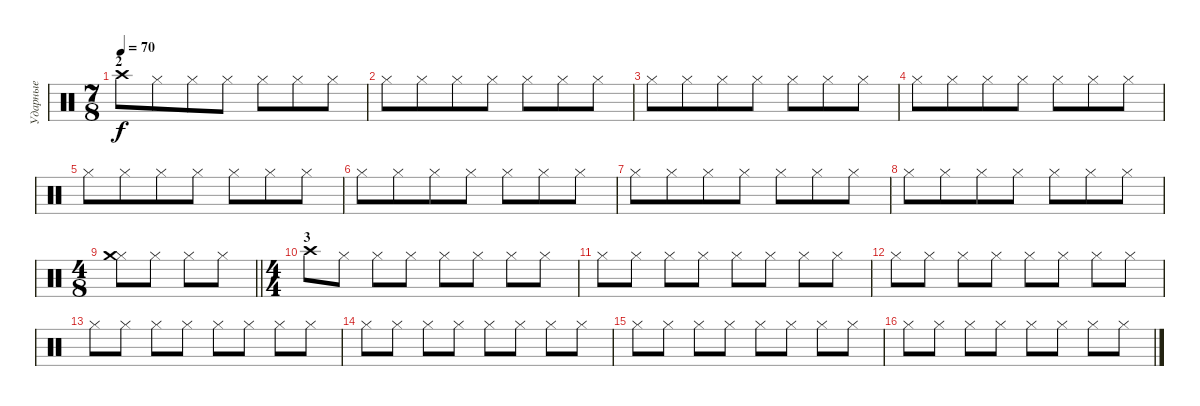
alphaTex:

\track ("Ударные" "Ударные") {instrument percussion}
\staff {score}
\articulation defaults
\ts (7 8)
\section ("" "2")
\tempo 70
\clef neutral
\ks c "Crash high (hit)".8{dy f} "Hi-Hat (closed)".8 "Hi-Hat (closed)".8 "Hi-Hat (closed)".8 "Hi-Hat (closed)".8 "Hi-Hat (closed)".8 "Hi-Hat (closed)".8
|
"Hi-Hat (closed)".8 "Hi-Hat (closed)".8 "Hi-Hat (closed)".8 "Hi-Hat (closed)".8 "Hi-Hat (closed)".8 "Hi-Hat (closed)".8 "Hi-Hat (closed)".8 |
"Hi-Hat (closed)".8 "Hi-Hat (closed)".8 "Hi-Hat (closed)".8 "Hi-Hat (closed)".8 "Hi-Hat (closed)".8 "Hi-Hat (closed)".8 "Hi-Hat (closed)".8 |
"Hi-Hat (closed)".8 "Hi-Hat (closed)".8 "Hi-Hat (closed)".8 "Hi-Hat (closed)".8 "Hi-Hat (closed)".8 "Hi-Hat (closed)".8 "Hi-Hat (closed)".8 |
"Hi-Hat (closed)".8 "Hi-Hat (closed)".8 "Hi-Hat (closed)".8 "Hi-Hat (closed)".8 "Hi-Hat (closed)".8 "Hi-Hat (closed)".8 "Hi-Hat (closed)".8 |
"Hi-Hat (closed)".8 "Hi-Hat (closed)".8 "Hi-Hat (closed)".8 "Hi-Hat (closed)".8 "Hi-Hat (closed)".8 "Hi-Hat (closed)".8 "Hi-Hat (closed)".8 |
"Hi-Hat (closed)".8 "Hi-Hat (closed)".8 "Hi-Hat (closed)".8 "Hi-Hat (closed)".8 "Hi-Hat (closed)".8 "Hi-Hat (closed)".8 "Hi-Hat (closed)".8 |
"Hi-Hat (closed)".8 "Hi-Hat (closed)".8 "Hi-Hat (closed)".8 "Hi-Hat (closed)".8 "Hi-Hat (closed)".8 "Hi-Hat (closed)".8 "Hi-Hat (closed)".8 |
\ts (4 8)
\barLineRight lightlight
("Hi-Hat (closed)" "Crash medium (hit)").8 "Hi-Hat (closed)".8 "Hi-Hat (closed)".8 "Hi-Hat (closed)".8 |
\ts (4 4)
\section ("" "3")
"Crash high (hit)".8 "Hi-Hat (closed)".8 "Hi-Hat (closed)".8 "Hi-Hat (closed)".8 "Hi-Hat (closed)".8 "Hi-Hat (closed)".8 "Hi-Hat (closed)".8 "Hi-Hat (closed)".8 |
"Hi-Hat (closed)".8 "Hi-Hat (closed)".8 "Hi-Hat (closed)".8 "Hi-Hat (closed)".8 "Hi-Hat (closed)".8 "Hi-Hat (closed)".8 "Hi-Hat (closed)".8 "Hi-Hat (closed)".8 |
"Hi-Hat (closed)".8 "Hi-Hat (closed)".8 "Hi-Hat (closed)".8 "Hi-Hat (closed)".8 "Hi-Hat (closed)".8 "Hi-Hat (closed)".8 "Hi-Hat (closed)".8 "Hi-Hat (closed)".8 |
"Hi-Hat (closed)".8 "Hi-Hat (closed)".8 "Hi-Hat (closed)".8 "Hi-Hat (closed)".8 "Hi-Hat (closed)".8 "Hi-Hat (closed)".8 "Hi-Hat (closed)".8 "Hi-Hat (closed)".8 |
"Hi-Hat (closed)".8 "Hi-Hat (closed)".8 "Hi-Hat (closed)".8 "Hi-Hat (closed)".8 "Hi-Hat (closed)".8 "Hi-Hat (closed)".8 "Hi-Hat (closed)".8 "Hi-Hat (closed)".8 |
"Hi-Hat (closed)".8 "Hi-Hat (closed)".8 "Hi-Hat (closed)".8 "Hi-Hat (closed)".8 "Hi-Hat (closed)".8 "Hi-Hat (closed)".8 "Hi-Hat (closed)".8 "Hi-Hat (closed)".8 |
"Hi-Hat (closed)".8 "Hi-Hat (closed)".8 "Hi-Hat (closed)".8 "Hi-Hat (closed)".8 "Hi-Hat (closed)".8 "Hi-Hat (closed)".8 "Hi-Hat (closed)".8 "Hi-Hat (closed)".8
